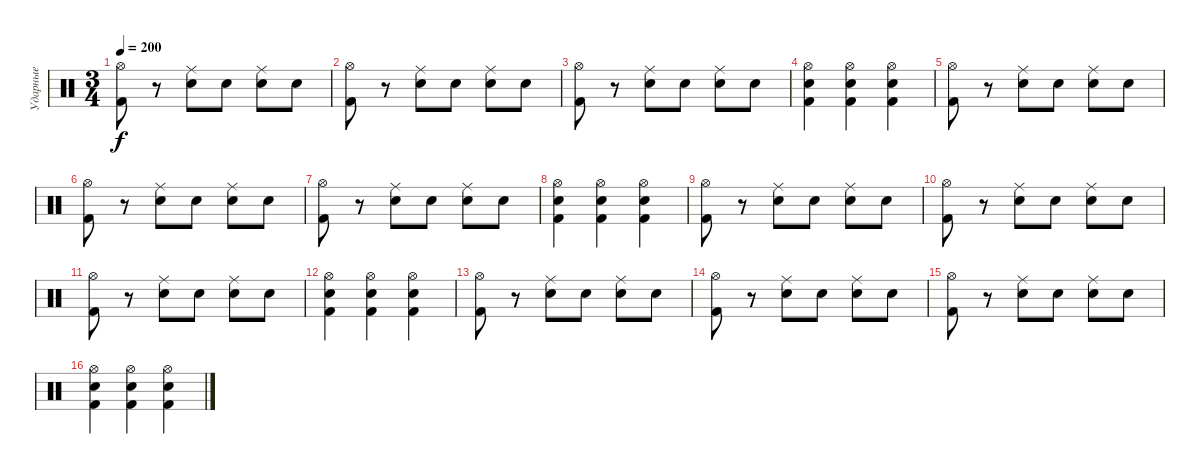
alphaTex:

\track ("Ударные" "Ударные") {instrument percussion}
\staff {score}
\articulation defaults
\ts (3 4)
\tempo 200
\clef neutral
\ks c
("Hi-Hat (open)" "Kick (hit) 2").8{dy f} r.8 ("Ride (middle)" "Electric Snare (hit)").8 "Electric Snare (hit)".8 ("Ride (middle)" "Electric Snare (hit)").8 "Electric Snare (hit)".8 |
("Hi-Hat (open)" "Kick (hit) 2").8 r.8 ("Ride (middle)" "Electric Snare (hit)").8 "Electric Snare (hit)".8 ("Ride (middle)" "Electric Snare (hit)").8 "Electric Snare (hit)".8 |
("Hi-Hat (open)" "Kick (hit) 2").8 r.8 ("Ride (middle)" "Electric Snare (hit)").8 "Electric Snare (hit)".8 ("Ride (middle)" "Electric Snare (hit)").8 "Electric Snare (hit)".8 |
("Hi-Hat (open)" "Electric Snare (hit)" "Kick (hit) 2").4 ("Hi-Hat (open)" "Electric Snare (hit)" "Kick (hit) 2").4 ("Hi-Hat (open)" "Electric Snare (hit)" "Kick (hit) 2").4 |
("Hi-Hat (open)" "Kick (hit) 2").8 r.8 ("Ride (middle)" "Electric Snare (hit)").8 "Electric Snare (hit)".8 ("Ride (middle)" "Electric Snare (hit)").8 "Electric Snare (hit)".8 |
("Hi-Hat (open)" "Kick (hit) 2").8 r.8 ("Ride (middle)" "Electric Snare (hit)").8 "Electric Snare (hit)".8 ("Ride (middle)" "Electric Snare (hit)").8 "Electric Snare (hit)".8 |
("Hi-Hat (open)" "Kick (hit) 2").8 r.8 ("Ride (middle)" "Electric Snare (hit)").8 "Electric Snare (hit)".8 ("Ride (middle)" "Electric Snare (hit)").8 "Electric Snare (hit)".8 |
("Hi-Hat (open)" "Electric Snare (hit)" "Kick (hit) 2").4 ("Hi-Hat (open)" "Electric Snare (hit)" "Kick (hit) 2").4 ("Hi-Hat (open)" "Electric Snare (hit)" "Kick (hit) 2").4 |
("Hi-Hat (open)" "Kick (hit) 2").8 r.8 ("Ride (middle)" "Electric Snare (hit)").8 "Electric Snare (hit)".8 ("Ride (middle)" "Electric Snare (hit)").8 "Electric Snare (hit)".8 |
("Hi-Hat (open)" "Kick (hit) 2").8 r.8 ("Ride (middle)" "Electric Snare (hit)").8 "Electric Snare (hit)".8 ("Ride (middle)" "Electric Snare (hit)").8 "Electric Snare (hit)".8 |
("Hi-Hat (open)" "Kick (hit) 2").8 r.8 ("Ride (middle)" "Electric Snare (hit)").8 "Electric Snare (hit)".8 ("Ride (middle)" "Electric Snare (hit)").8 "Electric Snare (hit)".8 |
("Hi-Hat (open)" "Electric Snare (hit)" "Kick (hit) 2").4 ("Hi-Hat (open)" "Electric Snare (hit)" "Kick (hit) 2").4 ("Hi-Hat (open)" "Electric Snare (hit)" "Kick (hit) 2").4 |
("Hi-Hat (open)" "Kick (hit) 2").8 r.8 ("Ride (middle)" "Electric Snare (hit)").8 "Electric Snare (hit)".8 ("Ride (middle)" "Electric Snare (hit)").8 "Electric Snare (hit)".8 |
("Hi-Hat (open)" "Kick (hit) 2").8 r.8 ("Ride (middle)" "Electric Snare (hit)").8 "Electric Snare (hit)".8 ("Ride (middle)" "Electric Snare (hit)").8 "Electric Snare (hit)".8 |
("Hi-Hat (open)" "Kick (hit) 2").8 r.8 ("Ride (middle)" "Electric Snare (hit)").8 "Electric Snare (hit)".8 ("Ride (middle)" "Electric Snare (hit)").8 "Electric Snare (hit)".8 |
("Hi-Hat (open)" "Electric Snare (hit)" "Kick (hit) 2").4 ("Hi-Hat (open)" "Electric Snare (hit)" "Kick (hit) 2").4 ("Hi-Hat (open)" "Electric Snare (hit)" "Kick (hit) 2").4
